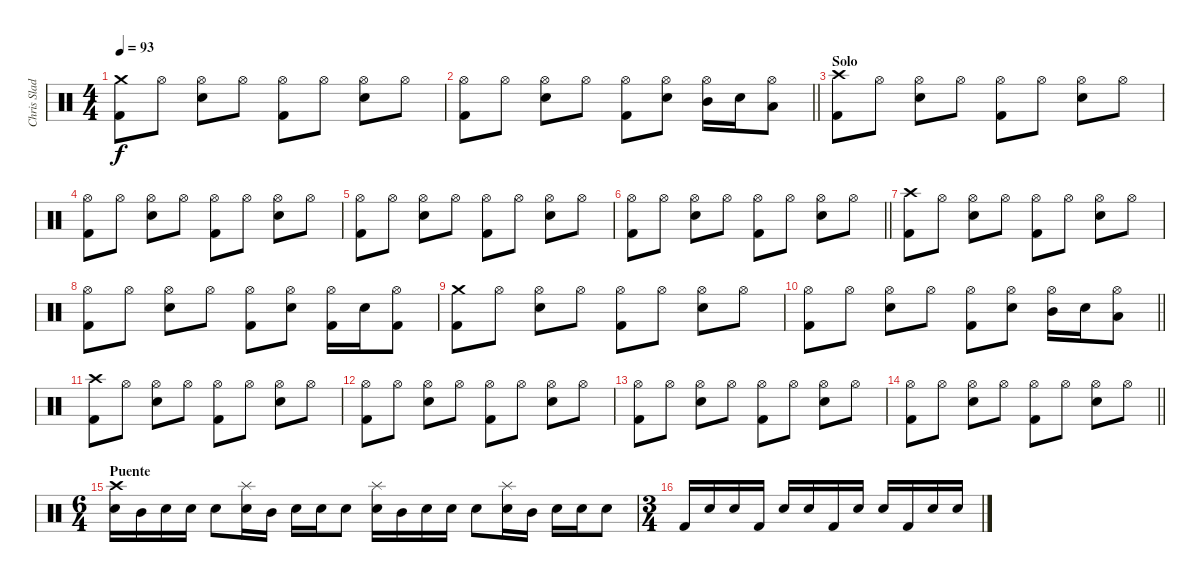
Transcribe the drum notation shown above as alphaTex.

\track ("Chris Slade" "Chris Slad") {instrument percussion}
\staff {score}
\articulation defaults
\ts (4 4)
\tempo 93
\clef neutral
\ks c
("Kick (hit) 2" "Crash medium (hit)").8{dy f} "Hi-Hat (open)".8 ("Snare (hit) 2" "Hi-Hat (open)").8 "Hi-Hat (open)".8 ("Kick (hit) 2" "Hi-Hat (open)").8 "Hi-Hat (open)".8 ("Snare (hit) 2" "Hi-Hat (open)").8 "Hi-Hat (open)".8 |
\barLineRight lightlight
("Kick (hit) 2" "Hi-Hat (open)").8 "Hi-Hat (open)".8 ("Snare (hit) 2" "Hi-Hat (open)").8 "Hi-Hat (open)".8 ("Kick (hit) 2" "Hi-Hat (open)").8 ("Snare (hit) 2" "Hi-Hat (open)").8 ("Mid Tom (hit)" "Hi-Hat (open)").16 "Snare (hit) 2".16 ("Low Tom (hit)" "Hi-Hat (open)").8 |
\section ("" "Solo")
("Kick (hit) 2" "Crash high (hit)").8 "Hi-Hat (open)".8 ("Snare (hit) 2" "Hi-Hat (open)").8 "Hi-Hat (open)".8 ("Kick (hit) 2" "Hi-Hat (open)").8 "Hi-Hat (open)".8 ("Snare (hit) 2" "Hi-Hat (open)").8 "Hi-Hat (open)".8 |
("Kick (hit) 2" "Hi-Hat (open)").8 "Hi-Hat (open)".8 ("Snare (hit) 2" "Hi-Hat (open)").8 "Hi-Hat (open)".8 ("Kick (hit) 2" "Hi-Hat (open)").8 "Hi-Hat (open)".8 ("Snare (hit) 2" "Hi-Hat (open)").8 "Hi-Hat (open)".8 |
("Kick (hit) 2" "Hi-Hat (open)").8 "Hi-Hat (open)".8 ("Snare (hit) 2" "Hi-Hat (open)").8 "Hi-Hat (open)".8 ("Kick (hit) 2" "Hi-Hat (open)").8 "Hi-Hat (open)".8 ("Snare (hit) 2" "Hi-Hat (open)").8 "Hi-Hat (open)".8 |
\barLineRight lightlight
("Kick (hit) 2" "Hi-Hat (open)").8 "Hi-Hat (open)".8 ("Snare (hit) 2" "Hi-Hat (open)").8 "Hi-Hat (open)".8 ("Kick (hit) 2" "Hi-Hat (open)").8 "Hi-Hat (open)".8 ("Snare (hit) 2" "Hi-Hat (open)").8 "Hi-Hat (open)".8 |
("Kick (hit) 2" "Crash high (hit)").8 "Hi-Hat (open)".8 ("Snare (hit) 2" "Hi-Hat (open)").8 "Hi-Hat (open)".8 ("Kick (hit) 2" "Hi-Hat (open)").8 "Hi-Hat (open)".8 ("Snare (hit) 2" "Hi-Hat (open)").8 "Hi-Hat (open)".8 |
("Kick (hit) 2" "Hi-Hat (open)").8 "Hi-Hat (open)".8 ("Snare (hit) 2" "Hi-Hat (open)").8 "Hi-Hat (open)".8 ("Kick (hit) 2" "Hi-Hat (open)").8 ("Snare (hit) 2" "Hi-Hat (open)").8 ("Kick (hit) 2" "Hi-Hat (open)").16 "Snare (hit) 2".16 ("Kick (hit) 2" "Hi-Hat (open)").8 |
("Kick (hit) 2" "Crash medium (hit)").8 "Hi-Hat (open)".8 ("Snare (hit) 2" "Hi-Hat (open)").8 "Hi-Hat (open)".8 ("Kick (hit) 2" "Hi-Hat (open)").8 "Hi-Hat (open)".8 ("Snare (hit) 2" "Hi-Hat (open)").8 "Hi-Hat (open)".8 |
\barLineRight lightlight
("Kick (hit) 2" "Hi-Hat (open)").8 "Hi-Hat (open)".8 ("Snare (hit) 2" "Hi-Hat (open)").8 "Hi-Hat (open)".8 ("Kick (hit) 2" "Hi-Hat (open)").8 ("Snare (hit) 2" "Hi-Hat (open)").8 ("Mid Tom (hit)" "Hi-Hat (open)").16 "Snare (hit) 2".16 ("Low Tom (hit)" "Hi-Hat (open)").8 |
("Kick (hit) 2" "Crash high (hit)").8 "Hi-Hat (open)".8 ("Snare (hit) 2" "Hi-Hat (open)").8 "Hi-Hat (open)".8 ("Kick (hit) 2" "Hi-Hat (open)").8 "Hi-Hat (open)".8 ("Snare (hit) 2" "Hi-Hat (open)").8 "Hi-Hat (open)".8 |
("Kick (hit) 2" "Hi-Hat (open)").8 "Hi-Hat (open)".8 ("Snare (hit) 2" "Hi-Hat (open)").8 "Hi-Hat (open)".8 ("Kick (hit) 2" "Hi-Hat (open)").8 "Hi-Hat (open)".8 ("Snare (hit) 2" "Hi-Hat (open)").8 "Hi-Hat (open)".8 |
("Kick (hit) 2" "Hi-Hat (open)").8 "Hi-Hat (open)".8 ("Snare (hit) 2" "Hi-Hat (open)").8 "Hi-Hat (open)".8 ("Kick (hit) 2" "Hi-Hat (open)").8 "Hi-Hat (open)".8 ("Snare (hit) 2" "Hi-Hat (open)").8 "Hi-Hat (open)".8 |
\barLineRight lightlight
("Kick (hit) 2" "Hi-Hat (open)").8 "Hi-Hat (open)".8 ("Snare (hit) 2" "Hi-Hat (open)").8 "Hi-Hat (open)".8 ("Kick (hit) 2" "Hi-Hat (open)").8 "Hi-Hat (open)".8 ("Snare (hit) 2" "Hi-Hat (open)").8 "Hi-Hat (open)".8 |
\ts (6 4)
\section ("" "Puente")
("Crash high (hit)" "Snare (hit) 2").16 "Mid Tom (hit)".16 "Snare (hit) 2".16 "Snare (hit) 2".16 "Snare (hit) 2".8 ("Splash (hit)" "Snare (hit) 2").16 "Mid Tom (hit)".16 "Snare (hit) 2".16 "Snare (hit) 2".16 "Snare (hit) 2".8 ("Splash (hit)" "Snare (hit) 2").16 "Mid Tom (hit)".16 "Snare (hit) 2".16 "Snare (hit) 2".16 "Snare (hit) 2".8 ("Splash (hit)" "Snare (hit) 2").16 "Mid Tom (hit)".16 "Snare (hit) 2".16 "Snare (hit) 2".16 "Snare (hit) 2".8 |
\ts (3 4)
"Kick (hit) 2".16 "Snare (hit) 2".16 "Snare (hit) 2".16 "Kick (hit) 2".16 "Snare (hit) 2".16 "Snare (hit) 2".16 "Kick (hit) 2".16 "Snare (hit) 2".16 "Snare (hit) 2".16 "Kick (hit) 2".16 "Snare (hit) 2".16 "Snare (hit) 2".16
